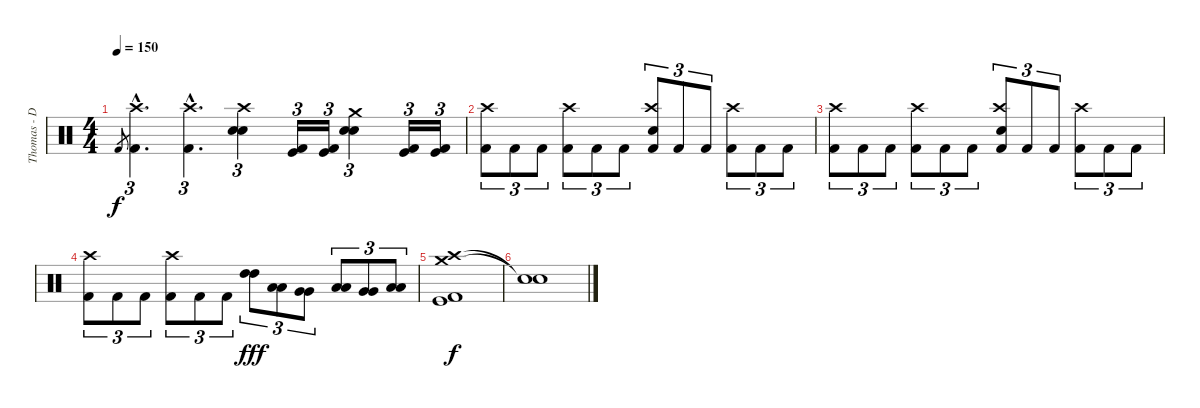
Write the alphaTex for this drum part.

\track ("Thomas - Drums" "Thomas - D") {instrument percussion}
\staff {score}
\articulation defaults
\ts (4 4)
\tempo 150
\clef neutral
\ks c "Kick (hit) 2".8{gr dy f}
("Crash high (hit)"{hac} "Kick (hit) 2"{hac}).4{d tu (3 2)} ("Crash high (hit)"{hac} "Kick (hit) 2"{hac}).4{d tu (3 2)} ("Crash high (hit)" "Electric Snare (hit)" "Electric Snare (hit)").4{tu (3 2)} ("Kick (hit)" "Kick (hit) 2").16{tu (3 2)} ("Kick (hit)" "Kick (hit) 2").16{tu (3 2)} ("Crash medium (hit)" "Electric Snare (hit)" "Electric Snare (hit)").4{tu (3 2)} ("Kick (hit)" "Kick (hit) 2").16{tu (3 2)} ("Kick (hit)" "Kick (hit) 2").16{tu (3 2)} |
("Crash high (hit)" "Kick (hit) 2").8{tu (3 2)} "Kick (hit) 2".8{tu (3 2)} "Kick (hit) 2".8{tu (3 2)} ("Crash high (hit)" "Kick (hit) 2").8{tu (3 2)} "Kick (hit) 2".8{tu (3 2)} "Kick (hit) 2".8{tu (3 2)} ("Crash high (hit)" "Electric Snare (hit)" "Kick (hit) 2").8{tu (3 2)} "Kick (hit) 2".8{tu (3 2)} "Kick (hit) 2".8{tu (3 2)} ("Crash high (hit)" "Kick (hit) 2").8{tu (3 2)} "Kick (hit) 2".8{tu (3 2)} "Kick (hit) 2".8{tu (3 2)} |
("Crash high (hit)" "Kick (hit) 2").8{tu (3 2)} "Kick (hit) 2".8{tu (3 2)} "Kick (hit) 2".8{tu (3 2)} ("Crash high (hit)" "Kick (hit) 2").8{tu (3 2)} "Kick (hit) 2".8{tu (3 2)} "Kick (hit) 2".8{tu (3 2)} ("Crash high (hit)" "Electric Snare (hit)" "Kick (hit) 2").8{tu (3 2)} "Kick (hit) 2".8{tu (3 2)} "Kick (hit) 2".8{tu (3 2)} ("Crash high (hit)" "Kick (hit) 2").8{tu (3 2)} "Kick (hit) 2".8{tu (3 2)} "Kick (hit) 2".8{tu (3 2)} |
("Crash high (hit)" "Kick (hit) 2").8{tu (3 2)} "Kick (hit) 2".8{tu (3 2)} "Kick (hit) 2".8{tu (3 2)} ("Crash high (hit)" "Kick (hit) 2").8{tu (3 2)} "Kick (hit) 2".8{tu (3 2)} "Kick (hit) 2".8{tu (3 2)} ("High Tom (hit)" "High Tom (hit)").8{tu (3 2) dy fff} ("Low Tom (hit)" "Low Tom (hit)").8{tu (3 2)} ("Very Low Tom (hit)" "Very Low Tom (hit)").8{tu (3 2)} ("Low Tom (hit)" "Low Tom (hit)").8{tu (3 2)} ("Very Low Tom (hit)" "Very Low Tom (hit)").8{tu (3 2)} ("Low Floor Tom (hit)" "Low Floor Tom (hit)").8{tu (3 2)} |
("Crash high (hit)" "Crash medium (hit)" "Kick (hit)" "Kick (hit) 2").1{dy f} |
("Snare (hit)"{t} "Snare (hit)"{t}).1
